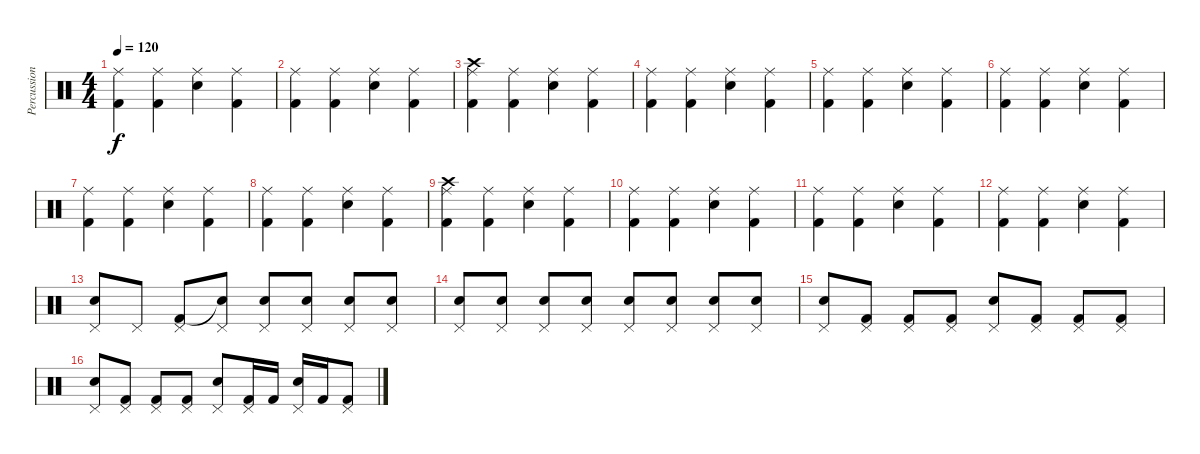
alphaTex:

\track ("Percussion" "Percussion") {instrument percussion}
\staff {score}
\articulation defaults
\ts (4 4)
\tempo 120
\clef neutral
\ks c
("Ride (middle)" "Kick (hit) 2").4{dy f} ("Ride (middle)" "Kick (hit) 2").4 ("Ride (middle)" "Electric Snare (hit)").4 ("Ride (middle)" "Kick (hit) 2").4 |
("Ride (middle)" "Kick (hit) 2").4 ("Ride (middle)" "Kick (hit) 2").4 ("Ride (middle)" "Electric Snare (hit)").4 ("Ride (middle)" "Kick (hit) 2").4 |
("Ride (middle)" "Kick (hit) 2" "Crash high (hit)").4 ("Ride (middle)" "Kick (hit) 2").4 ("Ride (middle)" "Electric Snare (hit)").4 ("Ride (middle)" "Kick (hit) 2").4 |
("Ride (middle)" "Kick (hit) 2").4 ("Ride (middle)" "Kick (hit) 2").4 ("Ride (middle)" "Electric Snare (hit)").4 ("Ride (middle)" "Kick (hit) 2").4 |
("Ride (middle)" "Kick (hit) 2").4 ("Ride (middle)" "Kick (hit) 2").4 ("Ride (middle)" "Electric Snare (hit)").4 ("Ride (middle)" "Kick (hit) 2").4 |
("Ride (middle)" "Kick (hit) 2").4 ("Ride (middle)" "Kick (hit) 2").4 ("Ride (middle)" "Electric Snare (hit)").4 ("Ride (middle)" "Kick (hit) 2").4 |
("Ride (middle)" "Kick (hit) 2").4 ("Ride (middle)" "Kick (hit) 2").4 ("Ride (middle)" "Electric Snare (hit)").4 ("Ride (middle)" "Kick (hit) 2").4 |
("Ride (middle)" "Kick (hit) 2").4 ("Ride (middle)" "Kick (hit) 2").4 ("Ride (middle)" "Electric Snare (hit)").4 ("Ride (middle)" "Kick (hit) 2").4 |
("Ride (middle)" "Kick (hit) 2" "Crash high (hit)").4 ("Ride (middle)" "Kick (hit) 2").4 ("Ride (middle)" "Electric Snare (hit)").4 ("Ride (middle)" "Kick (hit) 2").4 |
("Ride (middle)" "Kick (hit) 2").4 ("Ride (middle)" "Kick (hit) 2").4 ("Ride (middle)" "Electric Snare (hit)").4 ("Ride (middle)" "Kick (hit) 2").4 |
("Ride (middle)" "Kick (hit) 2").4 ("Ride (middle)" "Kick (hit) 2").4 ("Ride (middle)" "Electric Snare (hit)").4 ("Ride (middle)" "Kick (hit) 2").4 |
("Ride (middle)" "Kick (hit) 2").4 ("Ride (middle)" "Kick (hit) 2").4 ("Ride (middle)" "Electric Snare (hit)").4 ("Ride (middle)" "Kick (hit) 2").4 |
("Pedal Hi-Hat (hit)" "Electric Snare (hit)").8 "Pedal Hi-Hat (hit)".8 ("Pedal Hi-Hat (hit)" "Kick (hit) 2").8 ("Pedal Hi-Hat (hit)" "Snare (hit)"{t}).8 ("Pedal Hi-Hat (hit)" "Electric Snare (hit)").8 ("Pedal Hi-Hat (hit)" "Electric Snare (hit)").8 ("Pedal Hi-Hat (hit)" "Electric Snare (hit)").8 ("Pedal Hi-Hat (hit)" "Electric Snare (hit)").8 |
("Pedal Hi-Hat (hit)" "Electric Snare (hit)").8 ("Pedal Hi-Hat (hit)" "Electric Snare (hit)").8 ("Pedal Hi-Hat (hit)" "Electric Snare (hit)").8 ("Pedal Hi-Hat (hit)" "Electric Snare (hit)").8 ("Pedal Hi-Hat (hit)" "Electric Snare (hit)").8 ("Pedal Hi-Hat (hit)" "Electric Snare (hit)").8 ("Pedal Hi-Hat (hit)" "Electric Snare (hit)").8 ("Pedal Hi-Hat (hit)" "Electric Snare (hit)").8 |
("Pedal Hi-Hat (hit)" "Electric Snare (hit)").8 ("Pedal Hi-Hat (hit)" "Kick (hit) 2").8 ("Pedal Hi-Hat (hit)" "Kick (hit) 2").8 ("Pedal Hi-Hat (hit)" "Kick (hit) 2").8 ("Pedal Hi-Hat (hit)" "Electric Snare (hit)").8 ("Pedal Hi-Hat (hit)" "Kick (hit) 2").8 ("Pedal Hi-Hat (hit)" "Kick (hit) 2").8 ("Pedal Hi-Hat (hit)" "Kick (hit) 2").8 |
("Pedal Hi-Hat (hit)" "Electric Snare (hit)").8 ("Pedal Hi-Hat (hit)" "Kick (hit) 2").8 ("Pedal Hi-Hat (hit)" "Kick (hit) 2").8 ("Pedal Hi-Hat (hit)" "Kick (hit) 2").8 ("Pedal Hi-Hat (hit)" "Electric Snare (hit)").8 ("Pedal Hi-Hat (hit)" "Kick (hit) 2").16 "Kick (hit) 2".16 ("Pedal Hi-Hat (hit)" "Electric Snare (hit)").16 "Kick (hit) 2".16 ("Pedal Hi-Hat (hit)" "Kick (hit) 2").8
